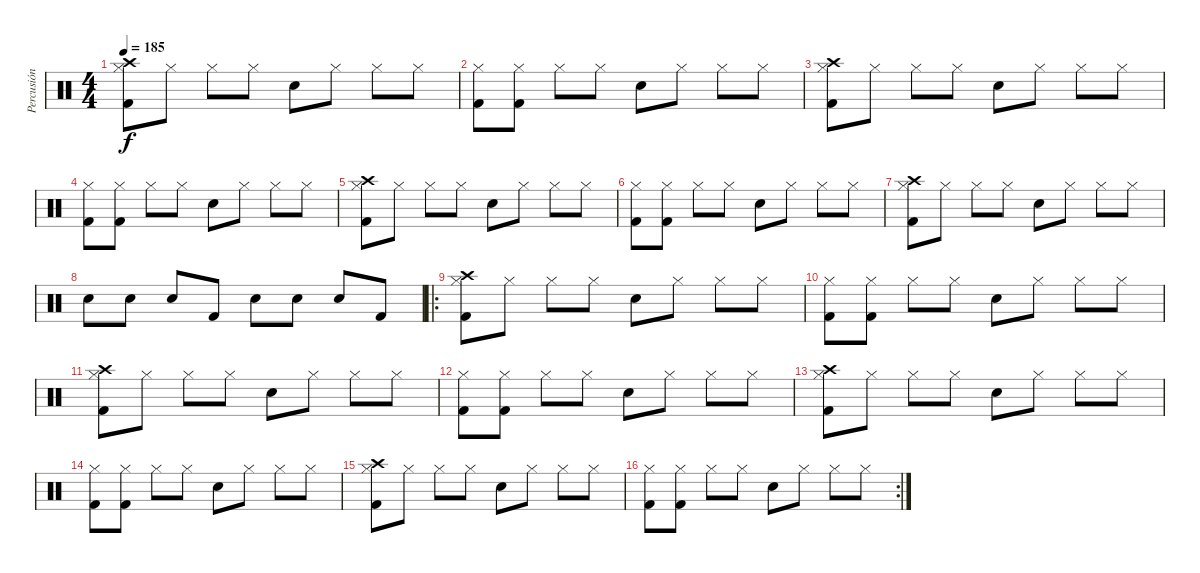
\track ("Percusión" "Percusión") {instrument percussion}
\staff {score}
\articulation defaults
\ts (4 4)
\tempo 185
\clef neutral
\ks c
("Crash high (hit)" "Hi-Hat (closed)" "Kick (hit) 2").8{dy f} "Hi-Hat (closed)".8 "Hi-Hat (closed)".8 "Hi-Hat (closed)".8 "Electric Snare (hit)".8 "Hi-Hat (closed)".8 "Hi-Hat (closed)".8 "Hi-Hat (closed)".8 |
("Hi-Hat (closed)" "Kick (hit) 2").8 ("Hi-Hat (closed)" "Kick (hit) 2").8 "Hi-Hat (closed)".8 "Hi-Hat (closed)".8 "Electric Snare (hit)".8 "Hi-Hat (closed)".8 "Hi-Hat (closed)".8 "Hi-Hat (closed)".8 |
("Crash high (hit)" "Hi-Hat (closed)" "Kick (hit) 2").8 "Hi-Hat (closed)".8 "Hi-Hat (closed)".8 "Hi-Hat (closed)".8 "Electric Snare (hit)".8 "Hi-Hat (closed)".8 "Hi-Hat (closed)".8 "Hi-Hat (closed)".8 |
("Hi-Hat (closed)" "Kick (hit) 2").8 ("Hi-Hat (closed)" "Kick (hit) 2").8 "Hi-Hat (closed)".8 "Hi-Hat (closed)".8 "Electric Snare (hit)".8 "Hi-Hat (closed)".8 "Hi-Hat (closed)".8 "Hi-Hat (closed)".8 |
("Crash high (hit)" "Hi-Hat (closed)" "Kick (hit) 2").8 "Hi-Hat (closed)".8 "Hi-Hat (closed)".8 "Hi-Hat (closed)".8 "Electric Snare (hit)".8 "Hi-Hat (closed)".8 "Hi-Hat (closed)".8 "Hi-Hat (closed)".8 |
("Hi-Hat (closed)" "Kick (hit) 2").8 ("Hi-Hat (closed)" "Kick (hit) 2").8 "Hi-Hat (closed)".8 "Hi-Hat (closed)".8 "Electric Snare (hit)".8 "Hi-Hat (closed)".8 "Hi-Hat (closed)".8 "Hi-Hat (closed)".8 |
("Crash high (hit)" "Hi-Hat (closed)" "Kick (hit) 2").8 "Hi-Hat (closed)".8 "Hi-Hat (closed)".8 "Hi-Hat (closed)".8 "Electric Snare (hit)".8 "Hi-Hat (closed)".8 "Hi-Hat (closed)".8 "Hi-Hat (closed)".8 |
"Electric Snare (hit)".8 "Electric Snare (hit)".8 "Electric Snare (hit)".8 "Kick (hit) 2".8 "Electric Snare (hit)".8 "Electric Snare (hit)".8 "Electric Snare (hit)".8 "Kick (hit) 2".8 |
\ro
("Crash high (hit)" "Hi-Hat (closed)" "Kick (hit) 2").8 "Hi-Hat (closed)".8 "Hi-Hat (closed)".8 "Hi-Hat (closed)".8 "Electric Snare (hit)".8 "Hi-Hat (closed)".8 "Hi-Hat (closed)".8 "Hi-Hat (closed)".8 |
("Hi-Hat (closed)" "Kick (hit) 2").8 ("Hi-Hat (closed)" "Kick (hit) 2").8 "Hi-Hat (closed)".8 "Hi-Hat (closed)".8 "Electric Snare (hit)".8 "Hi-Hat (closed)".8 "Hi-Hat (closed)".8 "Hi-Hat (closed)".8 |
("Crash high (hit)" "Hi-Hat (closed)" "Kick (hit) 2").8 "Hi-Hat (closed)".8 "Hi-Hat (closed)".8 "Hi-Hat (closed)".8 "Electric Snare (hit)".8 "Hi-Hat (closed)".8 "Hi-Hat (closed)".8 "Hi-Hat (closed)".8 |
("Hi-Hat (closed)" "Kick (hit) 2").8 ("Hi-Hat (closed)" "Kick (hit) 2").8 "Hi-Hat (closed)".8 "Hi-Hat (closed)".8 "Electric Snare (hit)".8 "Hi-Hat (closed)".8 "Hi-Hat (closed)".8 "Hi-Hat (closed)".8 |
("Crash high (hit)" "Hi-Hat (closed)" "Kick (hit) 2").8 "Hi-Hat (closed)".8 "Hi-Hat (closed)".8 "Hi-Hat (closed)".8 "Electric Snare (hit)".8 "Hi-Hat (closed)".8 "Hi-Hat (closed)".8 "Hi-Hat (closed)".8 |
("Hi-Hat (closed)" "Kick (hit) 2").8 ("Hi-Hat (closed)" "Kick (hit) 2").8 "Hi-Hat (closed)".8 "Hi-Hat (closed)".8 "Electric Snare (hit)".8 "Hi-Hat (closed)".8 "Hi-Hat (closed)".8 "Hi-Hat (closed)".8 |
("Crash high (hit)" "Hi-Hat (closed)" "Kick (hit) 2").8 "Hi-Hat (closed)".8 "Hi-Hat (closed)".8 "Hi-Hat (closed)".8 "Electric Snare (hit)".8 "Hi-Hat (closed)".8 "Hi-Hat (closed)".8 "Hi-Hat (closed)".8 |
\rc 2
("Hi-Hat (closed)" "Kick (hit) 2").8 ("Hi-Hat (closed)" "Kick (hit) 2").8 "Hi-Hat (closed)".8 "Hi-Hat (closed)".8 "Electric Snare (hit)".8 "Hi-Hat (closed)".8 "Hi-Hat (closed)".8 "Hi-Hat (closed)".8
